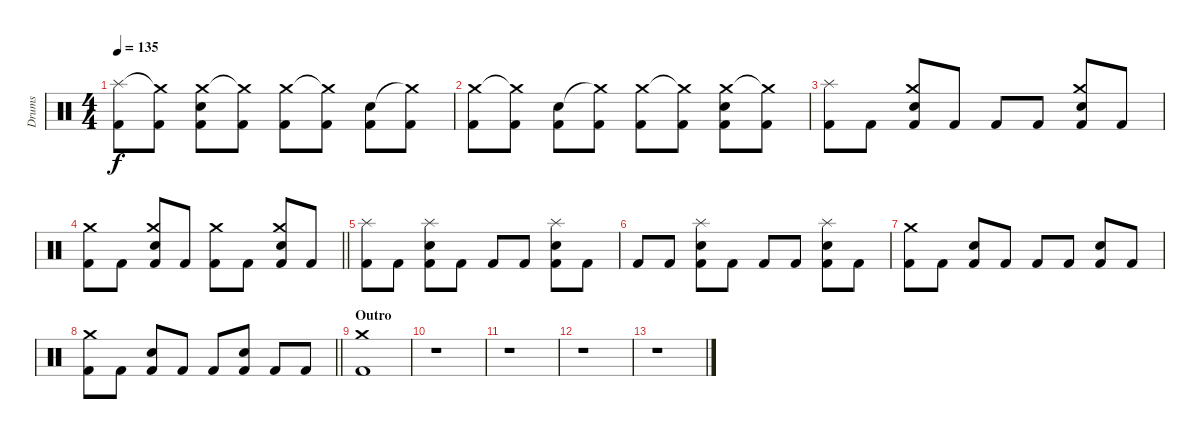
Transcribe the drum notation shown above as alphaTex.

\track ("Drums" "Drums") {instrument percussion}
\staff {score}
\articulation defaults
\ts (4 4)
\tempo 135
\clef neutral
\ks c
("Splash (hit)" "Kick (hit) 2").8{dy f} ("Crash medium (hit)"{t} "Kick (hit) 2").8 ("Crash medium (hit)" "Snare (hit) 2" "Kick (hit) 2").8 ("Crash medium (hit)"{t} "Kick (hit) 2").8 ("Crash medium (hit)" "Kick (hit) 2").8 ("Crash medium (hit)"{t} "Kick (hit) 2").8 ("Snare (hit) 2" "Kick (hit) 2").8 ("Crash medium (hit)"{t} "Kick (hit) 2").8 |
("Crash medium (hit)" "Kick (hit) 2").8 ("Crash medium (hit)"{t} "Kick (hit) 2").8 ("Snare (hit) 2" "Kick (hit) 2").8 ("Crash medium (hit)"{t} "Kick (hit) 2").8 ("Crash medium (hit)" "Kick (hit) 2").8 ("Crash medium (hit)"{t} "Kick (hit) 2").8 ("Crash medium (hit)" "Snare (hit) 2" "Kick (hit) 2").8 ("Crash medium (hit)"{t} "Kick (hit) 2").8 |
("Splash (hit)" "Kick (hit) 2").8 "Kick (hit) 2".8 ("Crash medium (hit)" "Snare (hit) 2" "Kick (hit) 2").8 "Kick (hit) 2".8 "Kick (hit) 2".8 "Kick (hit) 2".8 ("Crash medium (hit)" "Snare (hit) 2" "Kick (hit) 2").8 "Kick (hit) 2".8 |
\barLineRight lightlight
("Crash medium (hit)" "Kick (hit) 2").8 "Kick (hit) 2".8 ("Crash medium (hit)" "Snare (hit) 2" "Kick (hit) 2").8 "Kick (hit) 2".8 ("Crash medium (hit)" "Kick (hit) 2").8 "Kick (hit) 2".8 ("Crash medium (hit)" "Snare (hit) 2" "Kick (hit) 2").8 "Kick (hit) 2".8 |
("Splash (hit)" "Kick (hit) 2").8 "Kick (hit) 2".8 ("Splash (hit)" "Snare (hit) 2" "Kick (hit) 2").8 "Kick (hit) 2".8 "Kick (hit) 2".8 "Kick (hit) 2".8 ("Splash (hit)" "Snare (hit) 2" "Kick (hit) 2").8 "Kick (hit) 2".8 |
"Kick (hit) 2".8 "Kick (hit) 2".8 ("Splash (hit)" "Snare (hit) 2" "Kick (hit) 2").8 "Kick (hit) 2".8 "Kick (hit) 2".8 "Kick (hit) 2".8 ("Splash (hit)" "Snare (hit) 2" "Kick (hit) 2").8 "Kick (hit) 2".8 |
("Crash medium (hit)" "Kick (hit) 2").8 "Kick (hit) 2".8 ("Snare (hit) 2" "Kick (hit) 2").8 "Kick (hit) 2".8 "Kick (hit) 2".8 "Kick (hit) 2".8 ("Snare (hit) 2" "Kick (hit) 2").8 "Kick (hit) 2".8 |
\barLineRight lightlight
("Crash medium (hit)" "Kick (hit) 2").8 "Kick (hit) 2".8 ("Snare (hit) 2" "Kick (hit) 2").8 "Kick (hit) 2".8 "Kick (hit) 2".8 ("Snare (hit) 2" "Kick (hit) 2").8 "Kick (hit) 2".8 "Kick (hit) 2".8 |
\section ("" "Outro")
("Crash medium (hit)" "Kick (hit) 2").1 |
r.1 |
r.1 |
r.1 |
r.1
